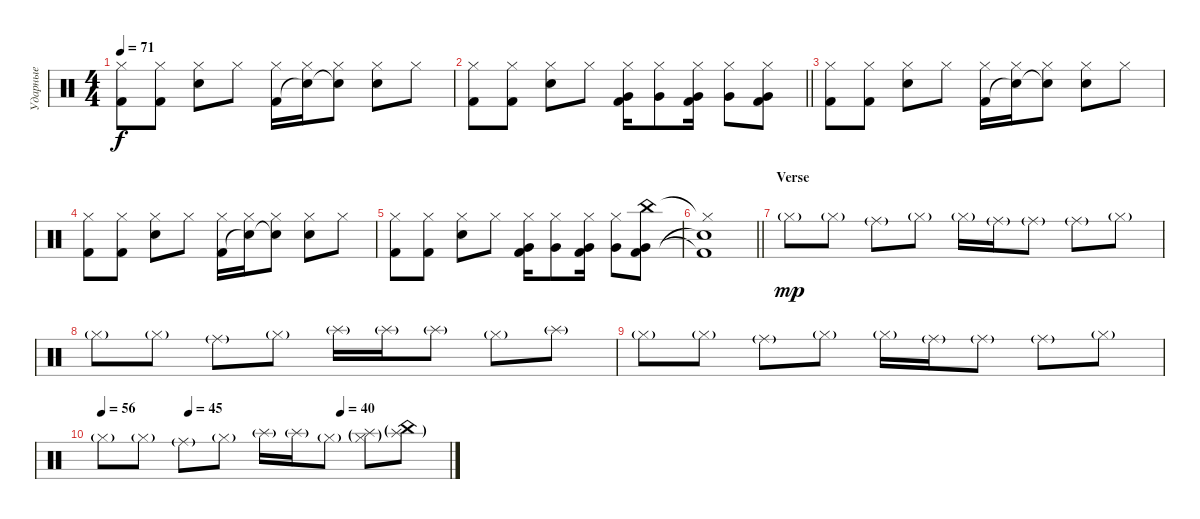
\track ("Ударные" "Ударные") {instrument percussion}
\staff {score}
\articulation defaults
\ts (4 4)
\tempo 71
\clef neutral
\ks c
("Kick (hit) 2" "Hi-Hat (closed)").8{dy f} ("Kick (hit) 2" "Hi-Hat (closed)").8 ("Electric Snare (hit)" "Hi-Hat (closed)").8 "Hi-Hat (closed)".8 ("Kick (hit) 2" "Hi-Hat (closed)").16 ("Snare (hit)"{t} "Hi-Hat (closed)").16 ("Snare (hit)"{t} "Hi-Hat (closed)").8 ("Electric Snare (hit)" "Hi-Hat (closed)").8 "Hi-Hat (closed)".8 |
\barLineRight lightlight
("Kick (hit) 2" "Hi-Hat (closed)").8 ("Kick (hit) 2" "Hi-Hat (closed)").8 ("Electric Snare (hit)" "Hi-Hat (closed)").8 "Hi-Hat (closed)".8 ("Kick (hit) 2" "Very Low Tom (hit)" "Hi-Hat (closed)").16 ("Very Low Tom (hit)" "Hi-Hat (closed)").8 ("Kick (hit) 2" "Very Low Tom (hit)" "Hi-Hat (closed)").16 ("Very Low Tom (hit)" "Hi-Hat (closed)").8 ("Kick (hit) 2" "Very Low Tom (hit)" "Hi-Hat (closed)").8 |
("Kick (hit) 2" "Hi-Hat (closed)").8 ("Kick (hit) 2" "Hi-Hat (closed)").8 ("Electric Snare (hit)" "Hi-Hat (closed)").8 "Hi-Hat (closed)".8 ("Kick (hit) 2" "Hi-Hat (closed)").16 ("Snare (hit)"{t} "Hi-Hat (closed)").16 ("Snare (hit)"{t} "Hi-Hat (closed)").8 ("Electric Snare (hit)" "Hi-Hat (closed)").8 "Hi-Hat (closed)".8 |
("Kick (hit) 2" "Hi-Hat (closed)").8 ("Kick (hit) 2" "Hi-Hat (closed)").8 ("Electric Snare (hit)" "Hi-Hat (closed)").8 "Hi-Hat (closed)".8 ("Kick (hit) 2" "Hi-Hat (closed)").16 ("Snare (hit)"{t} "Hi-Hat (closed)").16 ("Snare (hit)"{t} "Hi-Hat (closed)").8 ("Electric Snare (hit)" "Hi-Hat (closed)").8 "Hi-Hat (closed)".8 |
("Kick (hit) 2" "Hi-Hat (closed)").8 ("Kick (hit) 2" "Hi-Hat (closed)").8 ("Electric Snare (hit)" "Hi-Hat (closed)").8 "Hi-Hat (closed)".8 ("Kick (hit) 2" "Very Low Tom (hit)" "Hi-Hat (closed)").16 ("Very Low Tom (hit)" "Hi-Hat (closed)").8 ("Kick (hit) 2" "Very Low Tom (hit)" "Hi-Hat (closed)").16 ("Very Low Tom (hit)" "Hi-Hat (closed)").8 ("Kick (hit) 2" "Very Low Tom (hit)" "China (hit)").8 |
\barLineRight lightlight
("Snare (hit)"{t} "Kick (hit) 2"{t} "Hi-Hat (closed)"{t}).1 |
\section ("" "Verse")
"Hi-Hat (closed)"{g}.8{dy mp} "Hi-Hat (closed)"{g}.8 "Ride (middle)"{g}.8 "Hi-Hat (closed)"{g}.8 "Hi-Hat (closed)"{g}.16 "Ride (middle)"{g}.16 "Ride (middle)"{g}.8 "Ride (middle)"{g}.8 "Hi-Hat (closed)"{g}.8 |
"Hi-Hat (closed)"{g}.8 "Hi-Hat (closed)"{g}.8 "Ride (middle)"{g}.8 "Hi-Hat (closed)"{g}.8 "Splash (hit)"{g}.16 "Splash (hit)"{g}.16 "Splash (hit)"{g}.8 "Hi-Hat (closed)"{g}.8 "Splash (hit)"{g}.8 |
"Hi-Hat (closed)"{g}.8 "Hi-Hat (closed)"{g}.8 "Ride (middle)"{g}.8 "Hi-Hat (closed)"{g}.8 "Hi-Hat (closed)"{g}.16 "Ride (middle)"{g}.16 "Ride (middle)"{g}.8 "Ride (middle)"{g}.8 "Hi-Hat (closed)"{g}.8 |
\tempo 56
\tempo (45 0.25)
\tempo (40 0.6875)
"Hi-Hat (closed)"{g}.8 "Hi-Hat (closed)"{g}.8 "Ride (middle)"{g}.8 "Hi-Hat (closed)"{g}.8 "Splash (hit)"{g}.16 "Splash (hit)"{g}.16 "Hi-Hat (closed)"{g}.8 ("Hi-Hat (closed)"{g} "Splash (hit)"{g}).8 ("China (hit)"{g} "Splash (hit)"{g}).8
